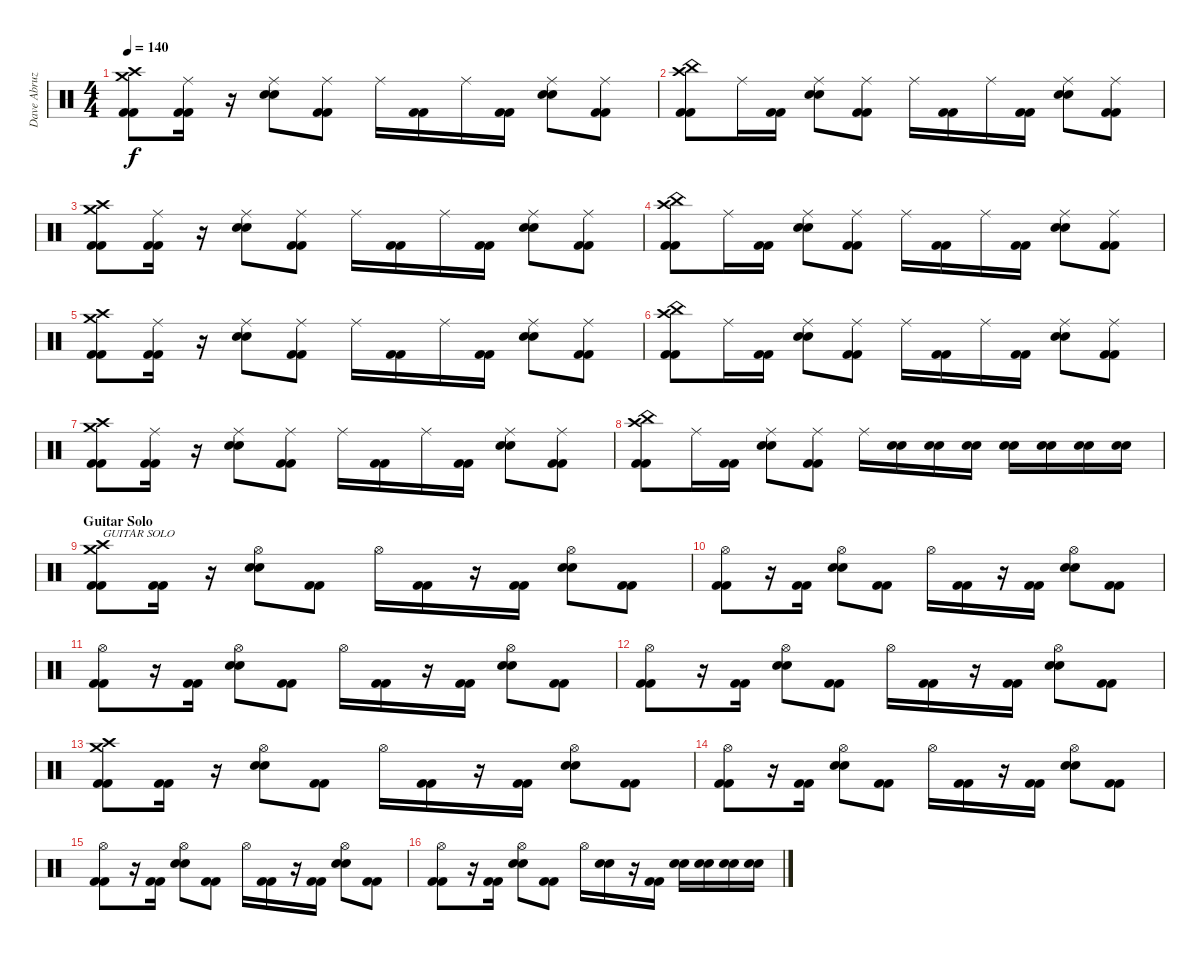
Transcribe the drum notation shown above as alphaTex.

\track ("Dave Abruzzese" "Dave Abruz") {instrument percussion}
\staff {score}
\articulation defaults
\ts (4 4)
\tempo 140
\clef neutral
\ks c
("Crash medium (hit)" "Kick (hit) 2" "Kick (hit) 2" "Crash high (hit)").8{dy f} ("Kick (hit) 2" "Kick (hit) 2" "Ride (middle)").16 r.16 ("Electric Snare (hit)" "Electric Snare (hit)" "Ride (middle)").8 ("Kick (hit) 2" "Kick (hit) 2" "Ride (middle)").8 "Ride (middle)".16 ("Kick (hit) 2" "Kick (hit) 2").16 "Ride (middle)".16 ("Kick (hit) 2" "Kick (hit) 2").16 ("Electric Snare (hit)" "Electric Snare (hit)" "Ride (middle)").8 ("Kick (hit) 2" "Kick (hit) 2" "Ride (middle)").8 |
("China (hit)" "Kick (hit) 2" "Kick (hit) 2" "Crash high (hit)").8 "Ride (middle)".16 ("Kick (hit) 2" "Kick (hit) 2").16 ("Electric Snare (hit)" "Electric Snare (hit)" "Ride (middle)").8 ("Kick (hit) 2" "Kick (hit) 2" "Ride (middle)").8 "Ride (middle)".16 ("Kick (hit) 2" "Kick (hit) 2").16 "Ride (middle)".16 ("Kick (hit) 2" "Kick (hit) 2").16 ("Electric Snare (hit)" "Electric Snare (hit)" "Ride (middle)").8 ("Kick (hit) 2" "Kick (hit) 2" "Ride (middle)").8 |
("Crash medium (hit)" "Kick (hit) 2" "Kick (hit) 2" "Crash high (hit)").8 ("Kick (hit) 2" "Kick (hit) 2" "Ride (middle)").16 r.16 ("Electric Snare (hit)" "Electric Snare (hit)" "Ride (middle)").8 ("Kick (hit) 2" "Kick (hit) 2" "Ride (middle)").8 "Ride (middle)".16 ("Kick (hit) 2" "Kick (hit) 2").16 "Ride (middle)".16 ("Kick (hit) 2" "Kick (hit) 2").16 ("Electric Snare (hit)" "Electric Snare (hit)" "Ride (middle)").8 ("Kick (hit) 2" "Kick (hit) 2" "Ride (middle)").8 |
("China (hit)" "Kick (hit) 2" "Kick (hit) 2" "Crash high (hit)").8 "Ride (middle)".16 ("Kick (hit) 2" "Kick (hit) 2").16 ("Electric Snare (hit)" "Electric Snare (hit)" "Ride (middle)").8 ("Kick (hit) 2" "Kick (hit) 2" "Ride (middle)").8 "Ride (middle)".16 ("Kick (hit) 2" "Kick (hit) 2").16 "Ride (middle)".16 ("Kick (hit) 2" "Kick (hit) 2").16 ("Electric Snare (hit)" "Electric Snare (hit)" "Ride (middle)").8 ("Kick (hit) 2" "Kick (hit) 2" "Ride (middle)").8 |
("Crash medium (hit)" "Kick (hit) 2" "Kick (hit) 2" "Crash high (hit)").8 ("Kick (hit) 2" "Kick (hit) 2" "Ride (middle)").16 r.16 ("Electric Snare (hit)" "Electric Snare (hit)" "Ride (middle)").8 ("Kick (hit) 2" "Kick (hit) 2" "Ride (middle)").8 "Ride (middle)".16 ("Kick (hit) 2" "Kick (hit) 2").16 "Ride (middle)".16 ("Kick (hit) 2" "Kick (hit) 2").16 ("Electric Snare (hit)" "Electric Snare (hit)" "Ride (middle)").8 ("Kick (hit) 2" "Kick (hit) 2" "Ride (middle)").8 |
("China (hit)" "Kick (hit) 2" "Kick (hit) 2" "Crash high (hit)").8 "Ride (middle)".16 ("Kick (hit) 2" "Kick (hit) 2").16 ("Electric Snare (hit)" "Electric Snare (hit)" "Ride (middle)").8 ("Kick (hit) 2" "Kick (hit) 2" "Ride (middle)").8 "Ride (middle)".16 ("Kick (hit) 2" "Kick (hit) 2").16 "Ride (middle)".16 ("Kick (hit) 2" "Kick (hit) 2").16 ("Electric Snare (hit)" "Electric Snare (hit)" "Ride (middle)").8 ("Kick (hit) 2" "Kick (hit) 2" "Ride (middle)").8 |
("Crash medium (hit)" "Kick (hit) 2" "Kick (hit) 2" "Crash high (hit)").8 ("Kick (hit) 2" "Kick (hit) 2" "Ride (middle)").16 r.16 ("Electric Snare (hit)" "Electric Snare (hit)" "Ride (middle)").8 ("Kick (hit) 2" "Kick (hit) 2" "Ride (middle)").8 "Ride (middle)".16 ("Kick (hit) 2" "Kick (hit) 2").16 "Ride (middle)".16 ("Kick (hit) 2" "Kick (hit) 2").16 ("Electric Snare (hit)" "Electric Snare (hit)" "Ride (middle)").8 ("Kick (hit) 2" "Kick (hit) 2" "Ride (middle)").8 |
("China (hit)" "Kick (hit) 2" "Kick (hit) 2" "Crash high (hit)").8 "Ride (middle)".16 ("Kick (hit) 2" "Kick (hit) 2").16 ("Electric Snare (hit)" "Electric Snare (hit)" "Ride (middle)").8 ("Kick (hit) 2" "Kick (hit) 2" "Ride (middle)").8 "Ride (middle)".16 ("Electric Snare (hit)" "Electric Snare (hit)").16 ("Electric Snare (hit)" "Electric Snare (hit)").16 ("Electric Snare (hit)" "Electric Snare (hit)").16 ("Electric Snare (hit)" "Electric Snare (hit)").16 ("Electric Snare (hit)" "Electric Snare (hit)").16 ("Electric Snare (hit)" "Electric Snare (hit)").16 ("Electric Snare (hit)" "Electric Snare (hit)").16 |
\section ("" "Guitar Solo")
("Crash medium (hit)" "Kick (hit) 2" "Kick (hit) 2" "Crash high (hit)").8{txt "GUITAR SOLO"} ("Kick (hit) 2" "Kick (hit) 2").16 r.16 ("Electric Snare (hit)" "Electric Snare (hit)" "Hi-Hat (open)").8 ("Kick (hit) 2" "Kick (hit) 2").8 "Hi-Hat (open)".16 ("Kick (hit) 2" "Kick (hit) 2").16 r.16 ("Kick (hit) 2" "Kick (hit) 2").16 ("Electric Snare (hit)" "Electric Snare (hit)" "Hi-Hat (open)").8 ("Kick (hit) 2" "Kick (hit) 2").8 |
("Kick (hit) 2" "Kick (hit) 2" "Hi-Hat (open)").8 r.16 ("Kick (hit) 2" "Kick (hit) 2").16 ("Electric Snare (hit)" "Electric Snare (hit)" "Hi-Hat (open)").8 ("Kick (hit) 2" "Kick (hit) 2").8 "Hi-Hat (open)".16 ("Kick (hit) 2" "Kick (hit) 2").16 r.16 ("Kick (hit) 2" "Kick (hit) 2").16 ("Electric Snare (hit)" "Electric Snare (hit)" "Hi-Hat (open)").8 ("Kick (hit) 2" "Kick (hit) 2").8 |
("Kick (hit) 2" "Kick (hit) 2" "Hi-Hat (open)").8 r.16 ("Kick (hit) 2" "Kick (hit) 2").16 ("Electric Snare (hit)" "Electric Snare (hit)" "Hi-Hat (open)").8 ("Kick (hit) 2" "Kick (hit) 2").8 "Hi-Hat (open)".16 ("Kick (hit) 2" "Kick (hit) 2").16 r.16 ("Kick (hit) 2" "Kick (hit) 2").16 ("Electric Snare (hit)" "Electric Snare (hit)" "Hi-Hat (open)").8 ("Kick (hit) 2" "Kick (hit) 2").8 |
("Kick (hit) 2" "Kick (hit) 2" "Hi-Hat (open)").8 r.16 ("Kick (hit) 2" "Kick (hit) 2").16 ("Electric Snare (hit)" "Electric Snare (hit)" "Hi-Hat (open)").8 ("Kick (hit) 2" "Kick (hit) 2").8 "Hi-Hat (open)".16 ("Kick (hit) 2" "Kick (hit) 2").16 r.16 ("Kick (hit) 2" "Kick (hit) 2").16 ("Electric Snare (hit)" "Electric Snare (hit)" "Hi-Hat (open)").8 ("Kick (hit) 2" "Kick (hit) 2").8 |
("Crash medium (hit)" "Kick (hit) 2" "Kick (hit) 2" "Crash high (hit)").8 ("Kick (hit) 2" "Kick (hit) 2").16 r.16 ("Electric Snare (hit)" "Electric Snare (hit)" "Hi-Hat (open)").8 ("Kick (hit) 2" "Kick (hit) 2").8 "Hi-Hat (open)".16 ("Kick (hit) 2" "Kick (hit) 2").16 r.16 ("Kick (hit) 2" "Kick (hit) 2").16 ("Electric Snare (hit)" "Electric Snare (hit)" "Hi-Hat (open)").8 ("Kick (hit) 2" "Kick (hit) 2").8 |
("Kick (hit) 2" "Kick (hit) 2" "Hi-Hat (open)").8 r.16 ("Kick (hit) 2" "Kick (hit) 2").16 ("Electric Snare (hit)" "Electric Snare (hit)" "Hi-Hat (open)").8 ("Kick (hit) 2" "Kick (hit) 2").8 "Hi-Hat (open)".16 ("Kick (hit) 2" "Kick (hit) 2").16 r.16 ("Kick (hit) 2" "Kick (hit) 2").16 ("Electric Snare (hit)" "Electric Snare (hit)" "Hi-Hat (open)").8 ("Kick (hit) 2" "Kick (hit) 2").8 |
("Kick (hit) 2" "Kick (hit) 2" "Hi-Hat (open)").8 r.16 ("Kick (hit) 2" "Kick (hit) 2").16 ("Electric Snare (hit)" "Electric Snare (hit)" "Hi-Hat (open)").8 ("Kick (hit) 2" "Kick (hit) 2").8 "Hi-Hat (open)".16 ("Kick (hit) 2" "Kick (hit) 2").16 r.16 ("Kick (hit) 2" "Kick (hit) 2").16 ("Electric Snare (hit)" "Electric Snare (hit)" "Hi-Hat (open)").8 ("Kick (hit) 2" "Kick (hit) 2").8 |
("Kick (hit) 2" "Kick (hit) 2" "Hi-Hat (open)").8 r.16 ("Kick (hit) 2" "Kick (hit) 2").16 ("Electric Snare (hit)" "Electric Snare (hit)" "Hi-Hat (open)").8 ("Kick (hit) 2" "Kick (hit) 2").8 "Hi-Hat (open)".16 ("Electric Snare (hit)" "Electric Snare (hit)").16 r.16 ("Kick (hit) 2" "Kick (hit) 2").16 ("Electric Snare (hit)" "Electric Snare (hit)").16 ("Electric Snare (hit)" "Electric Snare (hit)").16 ("Electric Snare (hit)" "Electric Snare (hit)").16 ("Electric Snare (hit)" "Electric Snare (hit)").16
